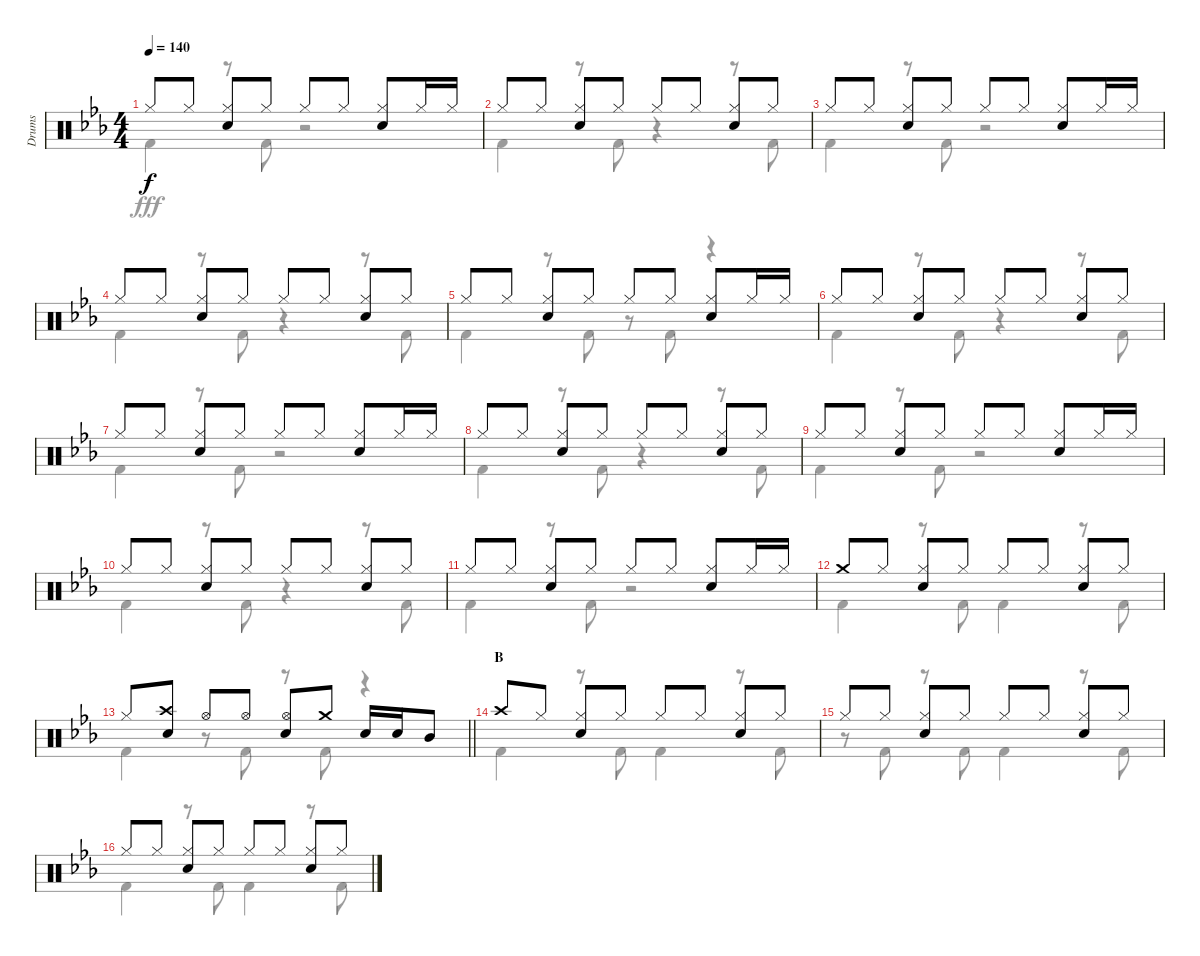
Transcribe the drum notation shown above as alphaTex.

\track ("Drums" "Drums") {instrument percussion}
\staff {score}
\articulation defaults
\voice
\ts (4 4)
\tempo 140
\clef neutral
\ks eb "Hi-Hat (closed)".8{dy f} "Hi-Hat (closed)".8
("Hi-Hat (closed)" "Snare (hit) 2").8 "Hi-Hat (closed)".8 "Hi-Hat (closed)".8 "Hi-Hat (closed)".8 ("Hi-Hat (closed)" "Snare (hit) 2").8 "Hi-Hat (closed)".16 "Hi-Hat (closed)".16 |
"Hi-Hat (closed)".8 "Hi-Hat (closed)".8 ("Hi-Hat (closed)" "Snare (hit) 2").8 "Hi-Hat (closed)".8 "Hi-Hat (closed)".8 "Hi-Hat (closed)".8 ("Hi-Hat (closed)" "Snare (hit) 2").8 "Hi-Hat (closed)".8 |
"Hi-Hat (closed)".8 "Hi-Hat (closed)".8 ("Hi-Hat (closed)" "Snare (hit) 2").8 "Hi-Hat (closed)".8 "Hi-Hat (closed)".8 "Hi-Hat (closed)".8 ("Hi-Hat (closed)" "Snare (hit) 2").8 "Hi-Hat (closed)".16 "Hi-Hat (closed)".16 |
"Hi-Hat (closed)".8 "Hi-Hat (closed)".8 ("Hi-Hat (closed)" "Snare (hit) 2").8 "Hi-Hat (closed)".8 "Hi-Hat (closed)".8 "Hi-Hat (closed)".8 ("Hi-Hat (closed)" "Snare (hit) 2").8 "Hi-Hat (closed)".8 |
"Hi-Hat (closed)".8 "Hi-Hat (closed)".8 ("Hi-Hat (closed)" "Snare (hit) 2").8 "Hi-Hat (closed)".8 "Hi-Hat (closed)".8 "Hi-Hat (closed)".8 ("Hi-Hat (closed)" "Snare (hit) 2").8 "Hi-Hat (closed)".16 "Hi-Hat (closed)".16 |
"Hi-Hat (closed)".8 "Hi-Hat (closed)".8 ("Hi-Hat (closed)" "Snare (hit) 2").8 "Hi-Hat (closed)".8 "Hi-Hat (closed)".8 "Hi-Hat (closed)".8 ("Hi-Hat (closed)" "Snare (hit) 2").8 "Hi-Hat (closed)".8 |
"Hi-Hat (closed)".8 "Hi-Hat (closed)".8 ("Hi-Hat (closed)" "Snare (hit) 2").8 "Hi-Hat (closed)".8 "Hi-Hat (closed)".8 "Hi-Hat (closed)".8 ("Hi-Hat (closed)" "Snare (hit) 2").8 "Hi-Hat (closed)".16 "Hi-Hat (closed)".16 |
"Hi-Hat (closed)".8 "Hi-Hat (closed)".8 ("Hi-Hat (closed)" "Snare (hit) 2").8 "Hi-Hat (closed)".8 "Hi-Hat (closed)".8 "Hi-Hat (closed)".8 ("Hi-Hat (closed)" "Snare (hit) 2").8 "Hi-Hat (closed)".8 |
"Hi-Hat (closed)".8 "Hi-Hat (closed)".8 ("Hi-Hat (closed)" "Snare (hit) 2").8 "Hi-Hat (closed)".8 "Hi-Hat (closed)".8 "Hi-Hat (closed)".8 ("Hi-Hat (closed)" "Snare (hit) 2").8 "Hi-Hat (closed)".16 "Hi-Hat (closed)".16 |
"Hi-Hat (closed)".8 "Hi-Hat (closed)".8 ("Hi-Hat (closed)" "Snare (hit) 2").8 "Hi-Hat (closed)".8 "Hi-Hat (closed)".8 "Hi-Hat (closed)".8 ("Hi-Hat (closed)" "Snare (hit) 2").8 "Hi-Hat (closed)".8 |
"Hi-Hat (closed)".8 "Hi-Hat (closed)".8 ("Hi-Hat (closed)" "Snare (hit) 2").8 "Hi-Hat (closed)".8 "Hi-Hat (closed)".8 "Hi-Hat (closed)".8 ("Hi-Hat (closed)" "Snare (hit) 2").8 "Hi-Hat (closed)".16 "Hi-Hat (closed)".16 |
"Crash medium (hit)".8 "Hi-Hat (closed)".8 ("Hi-Hat (closed)" "Snare (hit) 2").8 "Hi-Hat (closed)".8 "Hi-Hat (closed)".8 "Hi-Hat (closed)".8 ("Hi-Hat (closed)" "Snare (hit) 2").8 "Hi-Hat (closed)".8 |
\barLineRight lightlight "Hi-Hat (closed)".8
("Crash high (hit)" "Snare (hit) 2").8 "Hi-Hat (open)".8 "Hi-Hat (open)".8 ("Hi-Hat (open)" "Snare (hit) 2").8 "Crash medium (hit)".8 "Snare (hit) 2".16 "Snare (hit) 2".16 "Mid Tom (hit)".8 |
\section ("" "B")
"Crash high (hit)".8 "Hi-Hat (closed)".8 ("Hi-Hat (closed)" "Snare (hit) 2").8 "Hi-Hat (closed)".8 "Hi-Hat (closed)".8 "Hi-Hat (closed)".8 ("Hi-Hat (closed)" "Snare (hit) 2").8 "Hi-Hat (closed)".8 |
"Hi-Hat (closed)".8 "Hi-Hat (closed)".8 ("Hi-Hat (closed)" "Snare (hit) 2").8 "Hi-Hat (closed)".8 "Hi-Hat (closed)".8 "Hi-Hat (closed)".8 ("Hi-Hat (closed)" "Snare (hit) 2").8 "Hi-Hat (closed)".8 |
"Hi-Hat (closed)".8 "Hi-Hat (closed)".8 ("Hi-Hat (closed)" "Snare (hit) 2").8 "Hi-Hat (closed)".8 "Hi-Hat (closed)".8 "Hi-Hat (closed)".8 ("Hi-Hat (closed)" "Snare (hit) 2").8 "Hi-Hat (closed)".8
\voice
\clef neutral
\ottava regular
\simile none
\ks eb "Kick (hit) 2".4{dy fff}
r.8 "Kick (hit) 2".8 r.2 |
"Kick (hit) 2".4 r.8 "Kick (hit) 2".8 r.4 r.8 "Kick (hit) 2".8 |
"Kick (hit) 2".4 r.8 "Kick (hit) 2".8 r.2 |
"Kick (hit) 2".4 r.8 "Kick (hit) 2".8 r.4 r.8 "Kick (hit) 2".8 |
"Kick (hit) 2".4 r.8 "Kick (hit) 2".8 r.8 "Kick (hit) 2".8 r.4 |
"Kick (hit) 2".4 r.8 "Kick (hit) 2".8 r.4 r.8 "Kick (hit) 2".8 |
"Kick (hit) 2".4 r.8 "Kick (hit) 2".8 r.2 |
"Kick (hit) 2".4 r.8 "Kick (hit) 2".8 r.4 r.8 "Kick (hit) 2".8 |
"Kick (hit) 2".4 r.8 "Kick (hit) 2".8 r.2 |
"Kick (hit) 2".4 r.8 "Kick (hit) 2".8 r.4 r.8 "Kick (hit) 2".8 |
"Kick (hit) 2".4 r.8 "Kick (hit) 2".8 r.2 |
"Kick (hit) 2".4 r.8 "Kick (hit) 2".8 "Kick (hit) 2".4 r.8 "Kick (hit) 2".8 |
\barLineRight lightlight "Kick (hit) 2".4
r.8 "Kick (hit) 2".8 r.8 "Kick (hit) 2".8 r.4 |
"Kick (hit) 2".4 r.8 "Kick (hit) 2".8 "Kick (hit) 2".4 r.8 "Kick (hit) 2".8 |
r.8 "Kick (hit) 2".8 r.8 "Kick (hit) 2".8 "Kick (hit) 2".4 r.8 "Kick (hit) 2".8 |
"Kick (hit) 2".4 r.8 "Kick (hit) 2".8 "Kick (hit) 2".4 r.8 "Kick (hit) 2".8
